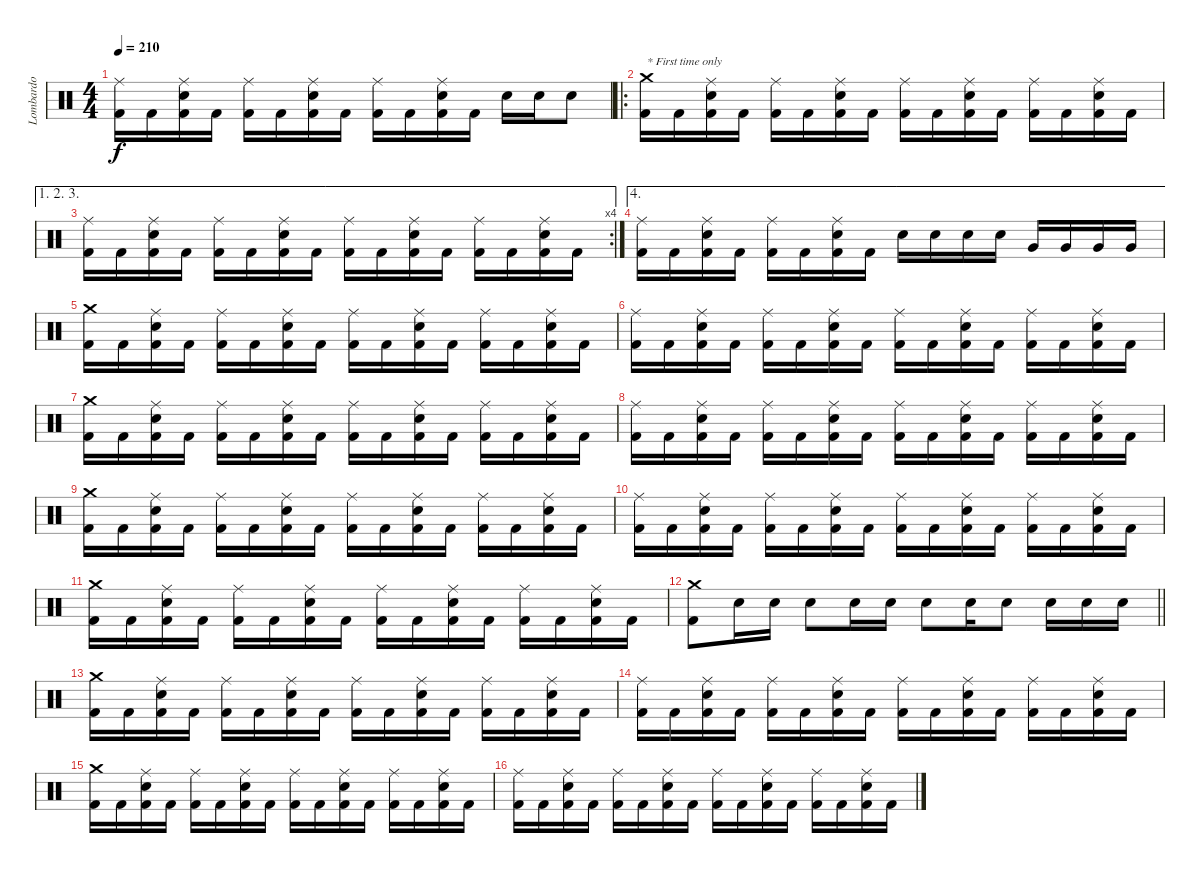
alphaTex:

\track ("Lombardo" "Lombardo") {instrument percussion}
\staff {score}
\articulation defaults
\ts (4 4)
\tempo 210
\clef neutral
\ks c
("Ride (middle)" "Kick (hit) 2").16{dy f} "Kick (hit) 2".16 ("Ride (middle)" "Snare (hit) 2" "Kick (hit) 2").16 "Kick (hit) 2".16 ("Ride (middle)" "Kick (hit) 2").16 "Kick (hit) 2".16 ("Ride (middle)" "Snare (hit) 2" "Kick (hit) 2").16 "Kick (hit) 2".16 ("Ride (middle)" "Kick (hit) 2").16 "Kick (hit) 2".16 ("Ride (middle)" "Snare (hit) 2" "Kick (hit) 2").16 "Kick (hit) 2".16 "Snare (hit) 2".16 "Snare (hit) 2".16 "Snare (hit) 2".8 |
\ro
("Crash medium (hit)" "Kick (hit) 2").16{txt "* First time only"} "Kick (hit) 2".16 ("Ride (middle)" "Snare (hit) 2" "Kick (hit) 2").16 "Kick (hit) 2".16 ("Ride (middle)" "Kick (hit) 2").16 "Kick (hit) 2".16 ("Ride (middle)" "Snare (hit) 2" "Kick (hit) 2").16 "Kick (hit) 2".16 ("Ride (middle)" "Kick (hit) 2").16 "Kick (hit) 2".16 ("Ride (middle)" "Snare (hit) 2" "Kick (hit) 2").16 "Kick (hit) 2".16 ("Ride (middle)" "Kick (hit) 2").16 "Kick (hit) 2".16 ("Ride (middle)" "Snare (hit) 2" "Kick (hit) 2").16 "Kick (hit) 2".16 |
\ae (1 2 3)
\rc 4
("Ride (middle)" "Kick (hit) 2").16 "Kick (hit) 2".16 ("Ride (middle)" "Snare (hit) 2" "Kick (hit) 2").16 "Kick (hit) 2".16 ("Ride (middle)" "Kick (hit) 2").16 "Kick (hit) 2".16 ("Ride (middle)" "Snare (hit) 2" "Kick (hit) 2").16 "Kick (hit) 2".16 ("Ride (middle)" "Kick (hit) 2").16 "Kick (hit) 2".16 ("Ride (middle)" "Snare (hit) 2" "Kick (hit) 2").16 "Kick (hit) 2".16 ("Ride (middle)" "Kick (hit) 2").16 "Kick (hit) 2".16 ("Ride (middle)" "Snare (hit) 2" "Kick (hit) 2").16 "Kick (hit) 2".16 |
\ae 4
("Ride (middle)" "Kick (hit) 2").16 "Kick (hit) 2".16 ("Ride (middle)" "Snare (hit) 2" "Kick (hit) 2").16 "Kick (hit) 2".16 ("Ride (middle)" "Kick (hit) 2").16 "Kick (hit) 2".16 ("Ride (middle)" "Snare (hit) 2" "Kick (hit) 2").16 "Kick (hit) 2".16 "Snare (hit) 2".16 "Snare (hit) 2".16 "Snare (hit) 2".16 "Snare (hit) 2".16 "Very Low Tom (hit)".16 "Very Low Tom (hit)".16 "Very Low Tom (hit)".16 "Very Low Tom (hit)".16 |
("Crash medium (hit)" "Kick (hit) 2").16 "Kick (hit) 2".16 ("Ride (middle)" "Snare (hit) 2" "Kick (hit) 2").16 "Kick (hit) 2".16 ("Ride (middle)" "Kick (hit) 2").16 "Kick (hit) 2".16 ("Ride (middle)" "Snare (hit) 2" "Kick (hit) 2").16 "Kick (hit) 2".16 ("Ride (middle)" "Kick (hit) 2").16 "Kick (hit) 2".16 ("Ride (middle)" "Snare (hit) 2" "Kick (hit) 2").16 "Kick (hit) 2".16 ("Ride (middle)" "Kick (hit) 2").16 "Kick (hit) 2".16 ("Ride (middle)" "Snare (hit) 2" "Kick (hit) 2").16 "Kick (hit) 2".16 |
("Ride (middle)" "Kick (hit) 2").16 "Kick (hit) 2".16 ("Ride (middle)" "Snare (hit) 2" "Kick (hit) 2").16 "Kick (hit) 2".16 ("Ride (middle)" "Kick (hit) 2").16 "Kick (hit) 2".16 ("Ride (middle)" "Snare (hit) 2" "Kick (hit) 2").16 "Kick (hit) 2".16 ("Ride (middle)" "Kick (hit) 2").16 "Kick (hit) 2".16 ("Ride (middle)" "Snare (hit) 2" "Kick (hit) 2").16 "Kick (hit) 2".16 ("Ride (middle)" "Kick (hit) 2").16 "Kick (hit) 2".16 ("Ride (middle)" "Snare (hit) 2" "Kick (hit) 2").16 "Kick (hit) 2".16 |
("Crash medium (hit)" "Kick (hit) 2").16 "Kick (hit) 2".16 ("Ride (middle)" "Snare (hit) 2" "Kick (hit) 2").16 "Kick (hit) 2".16 ("Ride (middle)" "Kick (hit) 2").16 "Kick (hit) 2".16 ("Ride (middle)" "Snare (hit) 2" "Kick (hit) 2").16 "Kick (hit) 2".16 ("Ride (middle)" "Kick (hit) 2").16 "Kick (hit) 2".16 ("Ride (middle)" "Snare (hit) 2" "Kick (hit) 2").16 "Kick (hit) 2".16 ("Ride (middle)" "Kick (hit) 2").16 "Kick (hit) 2".16 ("Ride (middle)" "Snare (hit) 2" "Kick (hit) 2").16 "Kick (hit) 2".16 |
("Ride (middle)" "Kick (hit) 2").16 "Kick (hit) 2".16 ("Ride (middle)" "Snare (hit) 2" "Kick (hit) 2").16 "Kick (hit) 2".16 ("Ride (middle)" "Kick (hit) 2").16 "Kick (hit) 2".16 ("Ride (middle)" "Snare (hit) 2" "Kick (hit) 2").16 "Kick (hit) 2".16 ("Ride (middle)" "Kick (hit) 2").16 "Kick (hit) 2".16 ("Ride (middle)" "Snare (hit) 2" "Kick (hit) 2").16 "Kick (hit) 2".16 ("Ride (middle)" "Kick (hit) 2").16 "Kick (hit) 2".16 ("Ride (middle)" "Snare (hit) 2" "Kick (hit) 2").16 "Kick (hit) 2".16 |
("Crash medium (hit)" "Kick (hit) 2").16 "Kick (hit) 2".16 ("Ride (middle)" "Snare (hit) 2" "Kick (hit) 2").16 "Kick (hit) 2".16 ("Ride (middle)" "Kick (hit) 2").16 "Kick (hit) 2".16 ("Ride (middle)" "Snare (hit) 2" "Kick (hit) 2").16 "Kick (hit) 2".16 ("Ride (middle)" "Kick (hit) 2").16 "Kick (hit) 2".16 ("Ride (middle)" "Snare (hit) 2" "Kick (hit) 2").16 "Kick (hit) 2".16 ("Ride (middle)" "Kick (hit) 2").16 "Kick (hit) 2".16 ("Ride (middle)" "Snare (hit) 2" "Kick (hit) 2").16 "Kick (hit) 2".16 |
("Ride (middle)" "Kick (hit) 2").16 "Kick (hit) 2".16 ("Ride (middle)" "Snare (hit) 2" "Kick (hit) 2").16 "Kick (hit) 2".16 ("Ride (middle)" "Kick (hit) 2").16 "Kick (hit) 2".16 ("Ride (middle)" "Snare (hit) 2" "Kick (hit) 2").16 "Kick (hit) 2".16 ("Ride (middle)" "Kick (hit) 2").16 "Kick (hit) 2".16 ("Ride (middle)" "Snare (hit) 2" "Kick (hit) 2").16 "Kick (hit) 2".16 ("Ride (middle)" "Kick (hit) 2").16 "Kick (hit) 2".16 ("Ride (middle)" "Snare (hit) 2" "Kick (hit) 2").16 "Kick (hit) 2".16 |
("Crash medium (hit)" "Kick (hit) 2").16 "Kick (hit) 2".16 ("Ride (middle)" "Snare (hit) 2" "Kick (hit) 2").16 "Kick (hit) 2".16 ("Ride (middle)" "Kick (hit) 2").16 "Kick (hit) 2".16 ("Ride (middle)" "Snare (hit) 2" "Kick (hit) 2").16 "Kick (hit) 2".16 ("Ride (middle)" "Kick (hit) 2").16 "Kick (hit) 2".16 ("Ride (middle)" "Snare (hit) 2" "Kick (hit) 2").16 "Kick (hit) 2".16 ("Ride (middle)" "Kick (hit) 2").16 "Kick (hit) 2".16 ("Ride (middle)" "Snare (hit) 2" "Kick (hit) 2").16 "Kick (hit) 2".16 |
\barLineRight lightlight
("Crash medium (hit)" "Kick (hit) 2").8 "Snare (hit) 2".16 "Snare (hit) 2".16 "Snare (hit) 2".8 "Snare (hit) 2".16 "Snare (hit) 2".16 "Snare (hit) 2".8 "Snare (hit) 2".16 "Snare (hit) 2".8 "Snare (hit) 2".16 "Snare (hit) 2".16 "Snare (hit) 2".16 |
("Crash medium (hit)" "Kick (hit) 2").16 "Kick (hit) 2".16 ("Ride (middle)" "Snare (hit) 2" "Kick (hit) 2").16 "Kick (hit) 2".16 ("Ride (middle)" "Kick (hit) 2").16 "Kick (hit) 2".16 ("Ride (middle)" "Snare (hit) 2" "Kick (hit) 2").16 "Kick (hit) 2".16 ("Ride (middle)" "Kick (hit) 2").16 "Kick (hit) 2".16 ("Ride (middle)" "Snare (hit) 2" "Kick (hit) 2").16 "Kick (hit) 2".16 ("Ride (middle)" "Kick (hit) 2").16 "Kick (hit) 2".16 ("Ride (middle)" "Snare (hit) 2" "Kick (hit) 2").16 "Kick (hit) 2".16 |
("Ride (middle)" "Kick (hit) 2").16 "Kick (hit) 2".16 ("Ride (middle)" "Snare (hit) 2" "Kick (hit) 2").16 "Kick (hit) 2".16 ("Ride (middle)" "Kick (hit) 2").16 "Kick (hit) 2".16 ("Ride (middle)" "Snare (hit) 2" "Kick (hit) 2").16 "Kick (hit) 2".16 ("Ride (middle)" "Kick (hit) 2").16 "Kick (hit) 2".16 ("Ride (middle)" "Snare (hit) 2" "Kick (hit) 2").16 "Kick (hit) 2".16 ("Ride (middle)" "Kick (hit) 2").16 "Kick (hit) 2".16 ("Ride (middle)" "Snare (hit) 2" "Kick (hit) 2").16 "Kick (hit) 2".16 |
("Crash medium (hit)" "Kick (hit) 2").16 "Kick (hit) 2".16 ("Ride (middle)" "Snare (hit) 2" "Kick (hit) 2").16 "Kick (hit) 2".16 ("Ride (middle)" "Kick (hit) 2").16 "Kick (hit) 2".16 ("Ride (middle)" "Snare (hit) 2" "Kick (hit) 2").16 "Kick (hit) 2".16 ("Ride (middle)" "Kick (hit) 2").16 "Kick (hit) 2".16 ("Ride (middle)" "Snare (hit) 2" "Kick (hit) 2").16 "Kick (hit) 2".16 ("Ride (middle)" "Kick (hit) 2").16 "Kick (hit) 2".16 ("Ride (middle)" "Snare (hit) 2" "Kick (hit) 2").16 "Kick (hit) 2".16 |
("Ride (middle)" "Kick (hit) 2").16 "Kick (hit) 2".16 ("Ride (middle)" "Snare (hit) 2" "Kick (hit) 2").16 "Kick (hit) 2".16 ("Ride (middle)" "Kick (hit) 2").16 "Kick (hit) 2".16 ("Ride (middle)" "Snare (hit) 2" "Kick (hit) 2").16 "Kick (hit) 2".16 ("Ride (middle)" "Kick (hit) 2").16 "Kick (hit) 2".16 ("Ride (middle)" "Snare (hit) 2" "Kick (hit) 2").16 "Kick (hit) 2".16 ("Ride (middle)" "Kick (hit) 2").16 "Kick (hit) 2".16 ("Ride (middle)" "Snare (hit) 2" "Kick (hit) 2").16 "Kick (hit) 2".16
